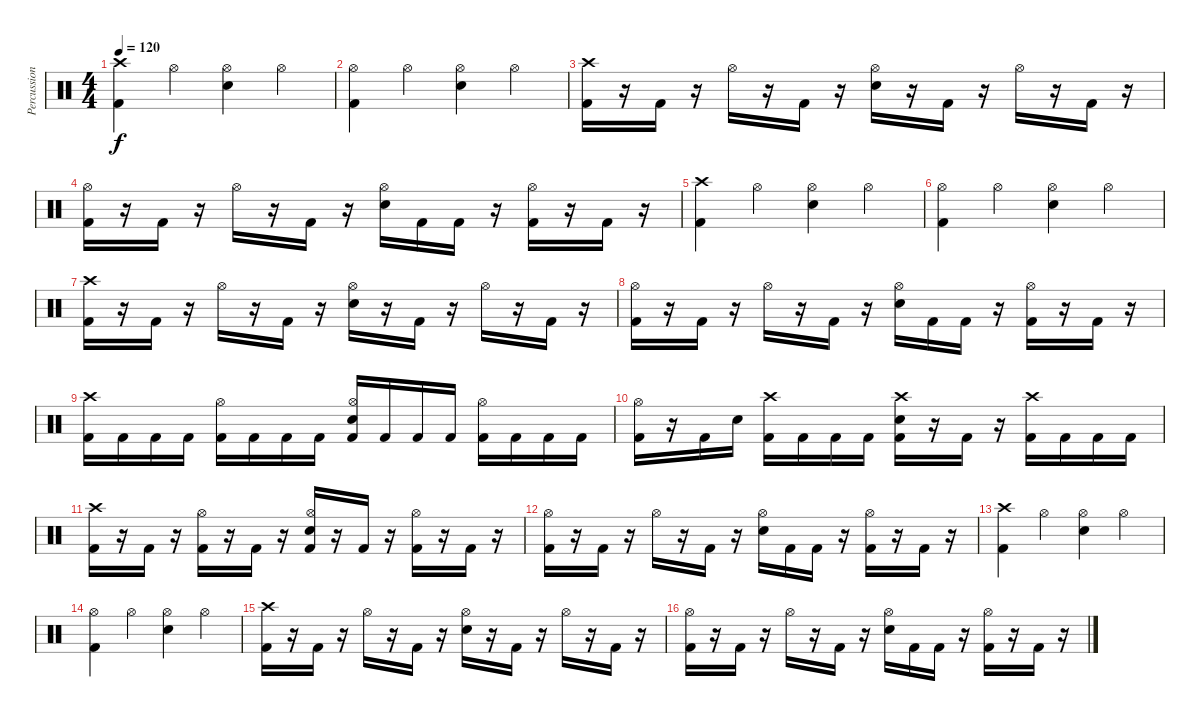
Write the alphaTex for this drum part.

\track ("Percussion" "Percussion") {instrument percussion}
\staff {score}
\articulation defaults
\ts (4 4)
\tempo 120
\clef neutral
\ks c
("Crash high (hit)" "Kick (hit) 2").4{dy f} "Hi-Hat (open)".4 ("Hi-Hat (open)" "Snare (hit) 2").4 "Hi-Hat (open)".4 |
("Hi-Hat (open)" "Kick (hit) 2").4 "Hi-Hat (open)".4 ("Hi-Hat (open)" "Snare (hit) 2").4 "Hi-Hat (open)".4 |
("Crash high (hit)" "Kick (hit) 2").16 r.16 "Kick (hit) 2".16 r.16 "Hi-Hat (open)".16 r.16 "Kick (hit) 2".16 r.16 ("Hi-Hat (open)" "Snare (hit) 2").16 r.16 "Kick (hit) 2".16 r.16 "Hi-Hat (open)".16 r.16 "Kick (hit) 2".16 r.16 |
("Hi-Hat (open)" "Kick (hit) 2").16 r.16 "Kick (hit) 2".16 r.16 "Hi-Hat (open)".16 r.16 "Kick (hit) 2".16 r.16 ("Hi-Hat (open)" "Snare (hit) 2").16 "Kick (hit) 2".16 "Kick (hit) 2".16 r.16 ("Hi-Hat (open)" "Kick (hit) 2").16 r.16 "Kick (hit) 2".16 r.16 |
("Crash high (hit)" "Kick (hit) 2").4 "Hi-Hat (open)".4 ("Hi-Hat (open)" "Snare (hit) 2").4 "Hi-Hat (open)".4 |
("Hi-Hat (open)" "Kick (hit) 2").4 "Hi-Hat (open)".4 ("Hi-Hat (open)" "Snare (hit) 2").4 "Hi-Hat (open)".4 |
("Crash high (hit)" "Kick (hit) 2").16 r.16 "Kick (hit) 2".16 r.16 "Hi-Hat (open)".16 r.16 "Kick (hit) 2".16 r.16 ("Hi-Hat (open)" "Snare (hit) 2").16 r.16 "Kick (hit) 2".16 r.16 "Hi-Hat (open)".16 r.16 "Kick (hit) 2".16 r.16 |
("Hi-Hat (open)" "Kick (hit) 2").16 r.16 "Kick (hit) 2".16 r.16 "Hi-Hat (open)".16 r.16 "Kick (hit) 2".16 r.16 ("Hi-Hat (open)" "Snare (hit) 2").16 "Kick (hit) 2".16 "Kick (hit) 2".16 r.16 ("Hi-Hat (open)" "Kick (hit) 2").16 r.16 "Kick (hit) 2".16 r.16 |
("Crash high (hit)" "Kick (hit) 2").16 "Kick (hit) 2".16 "Kick (hit) 2".16 "Kick (hit) 2".16 ("Hi-Hat (open)" "Kick (hit) 2").16 "Kick (hit) 2".16 "Kick (hit) 2".16 "Kick (hit) 2".16 ("Hi-Hat (open)" "Snare (hit) 2" "Kick (hit) 2").16 "Kick (hit) 2".16 "Kick (hit) 2".16 "Kick (hit) 2".16 ("Hi-Hat (open)" "Kick (hit) 2").16 "Kick (hit) 2".16 "Kick (hit) 2".16 "Kick (hit) 2".16 |
("Hi-Hat (open)" "Kick (hit) 2").16 r.16 "Kick (hit) 2".16 "Snare (hit) 2".16 ("Crash high (hit)" "Kick (hit) 2").16 "Kick (hit) 2".16 "Kick (hit) 2".16 "Kick (hit) 2".16 ("Crash high (hit)" "Snare (hit) 2" "Kick (hit) 2").16 r.16 "Kick (hit) 2".16 r.16 ("Crash high (hit)" "Kick (hit) 2").16 "Kick (hit) 2".16 "Kick (hit) 2".16 "Kick (hit) 2".16 |
("Crash high (hit)" "Kick (hit) 2").16 r.16 "Kick (hit) 2".16 r.16 ("Hi-Hat (open)" "Kick (hit) 2").16 r.16 "Kick (hit) 2".16 r.16 ("Hi-Hat (open)" "Snare (hit) 2" "Kick (hit) 2").16 r.16 "Kick (hit) 2".16 r.16 ("Hi-Hat (open)" "Kick (hit) 2").16 r.16 "Kick (hit) 2".16 r.16 |
("Hi-Hat (open)" "Kick (hit) 2").16 r.16 "Kick (hit) 2".16 r.16 "Hi-Hat (open)".16 r.16 "Kick (hit) 2".16 r.16 ("Hi-Hat (open)" "Snare (hit) 2").16 "Kick (hit) 2".16 "Kick (hit) 2".16 r.16 ("Hi-Hat (open)" "Kick (hit) 2").16 r.16 "Kick (hit) 2".16 r.16 |
("Crash high (hit)" "Kick (hit) 2").4 "Hi-Hat (open)".4 ("Hi-Hat (open)" "Snare (hit) 2").4 "Hi-Hat (open)".4 |
("Hi-Hat (open)" "Kick (hit) 2").4 "Hi-Hat (open)".4 ("Hi-Hat (open)" "Snare (hit) 2").4 "Hi-Hat (open)".4 |
("Crash high (hit)" "Kick (hit) 2").16 r.16 "Kick (hit) 2".16 r.16 "Hi-Hat (open)".16 r.16 "Kick (hit) 2".16 r.16 ("Hi-Hat (open)" "Snare (hit) 2").16 r.16 "Kick (hit) 2".16 r.16 "Hi-Hat (open)".16 r.16 "Kick (hit) 2".16 r.16 |
("Hi-Hat (open)" "Kick (hit) 2").16 r.16 "Kick (hit) 2".16 r.16 "Hi-Hat (open)".16 r.16 "Kick (hit) 2".16 r.16 ("Hi-Hat (open)" "Snare (hit) 2").16 "Kick (hit) 2".16 "Kick (hit) 2".16 r.16 ("Hi-Hat (open)" "Kick (hit) 2").16 r.16 "Kick (hit) 2".16 r.16
